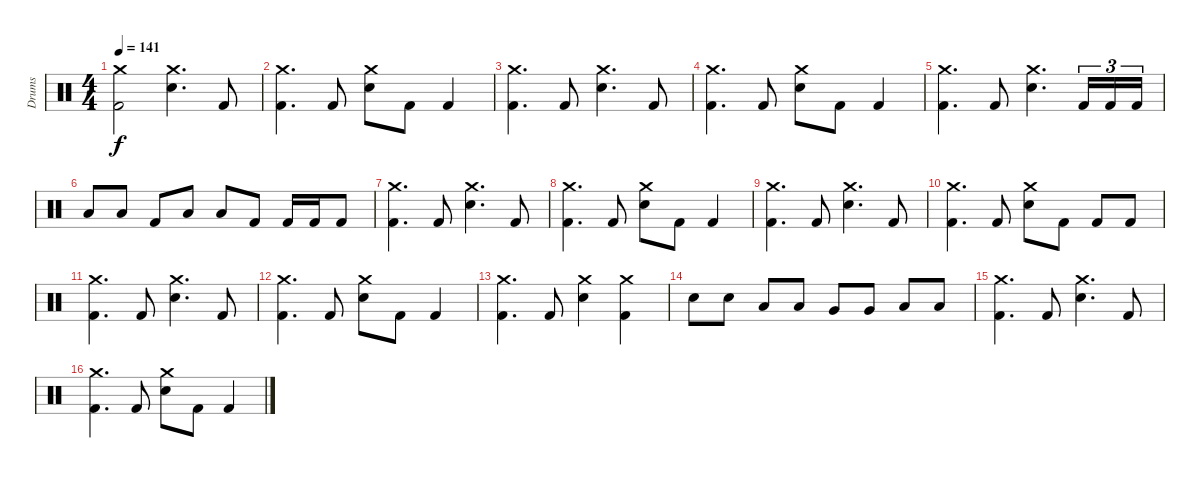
\track ("Drums" "Drums") {instrument percussion}
\staff {score}
\articulation defaults
\ts (4 4)
\tempo 141
\clef neutral
\ks c
("Kick (hit) 2" "Crash medium (hit)").2{dy f} ("Snare (hit) 2" "Crash medium (hit)").4{d} "Kick (hit) 2".8 |
("Kick (hit) 2" "Crash medium (hit)").4{d} "Kick (hit) 2".8 ("Snare (hit) 2" "Crash medium (hit)").8 "Kick (hit) 2".8 "Kick (hit) 2".4 |
("Kick (hit) 2" "Crash medium (hit)").4{d} "Kick (hit) 2".8 ("Snare (hit) 2" "Crash medium (hit)").4{d} "Kick (hit) 2".8 |
("Kick (hit) 2" "Crash medium (hit)").4{d} "Kick (hit) 2".8 ("Snare (hit) 2" "Crash medium (hit)").8 "Kick (hit) 2".8 "Kick (hit) 2".4 |
("Kick (hit) 2" "Crash medium (hit)").4{d} "Kick (hit) 2".8 ("Snare (hit) 2" "Crash medium (hit)").4{d} "Kick (hit) 2".16{tu (3 2)} "Kick (hit) 2".16{tu (3 2)} "Kick (hit) 2".16{tu (3 2)} |
"Low Tom (hit)".8 "Low Tom (hit)".8 "Kick (hit) 2".8 "Low Tom (hit)".8 "Low Tom (hit)".8 "Kick (hit) 2".8 "Kick (hit) 2".16 "Kick (hit) 2".16 "Kick (hit) 2".8 |
("Kick (hit) 2" "Crash medium (hit)").4{d} "Kick (hit) 2".8 ("Snare (hit) 2" "Crash medium (hit)").4{d} "Kick (hit) 2".8 |
("Kick (hit) 2" "Crash medium (hit)").4{d} "Kick (hit) 2".8 ("Snare (hit) 2" "Crash medium (hit)").8 "Kick (hit) 2".8 "Kick (hit) 2".4 |
("Kick (hit) 2" "Crash medium (hit)").4{d} "Kick (hit) 2".8 ("Snare (hit) 2" "Crash medium (hit)").4{d} "Kick (hit) 2".8 |
("Kick (hit) 2" "Crash medium (hit)").4{d} "Kick (hit) 2".8 ("Snare (hit) 2" "Crash medium (hit)").8 "Kick (hit) 2".8 "Kick (hit) 2".8 "Kick (hit) 2".8 |
("Kick (hit) 2" "Crash medium (hit)").4{d} "Kick (hit) 2".8 ("Snare (hit) 2" "Crash medium (hit)").4{d} "Kick (hit) 2".8 |
("Kick (hit) 2" "Crash medium (hit)").4{d} "Kick (hit) 2".8 ("Snare (hit) 2" "Crash medium (hit)").8 "Kick (hit) 2".8 "Kick (hit) 2".4 |
("Kick (hit) 2" "Crash medium (hit)").4{d} "Kick (hit) 2".8 ("Snare (hit) 2" "Crash medium (hit)").4 ("Kick (hit) 2" "Crash medium (hit)").4 |
"Snare (hit) 2".8 "Snare (hit) 2".8 "Low Tom (hit)".8 "Low Tom (hit)".8 "Very Low Tom (hit)".8 "Very Low Tom (hit)".8 "Low Floor Tom (hit)".8 "Low Floor Tom (hit)".8 |
("Kick (hit) 2" "Crash medium (hit)").4{d} "Kick (hit) 2".8 ("Snare (hit) 2" "Crash medium (hit)").4{d} "Kick (hit) 2".8 |
("Kick (hit) 2" "Crash medium (hit)").4{d} "Kick (hit) 2".8 ("Snare (hit) 2" "Crash medium (hit)").8 "Kick (hit) 2".8 "Kick (hit) 2".4
